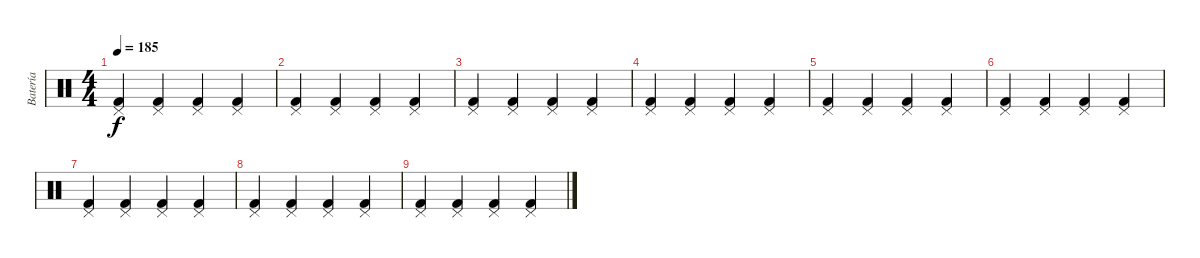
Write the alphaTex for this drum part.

\track ("Batería" "Batería") {instrument percussion}
\staff {score}
\articulation defaults
\ts (4 4)
\tempo 185
\clef neutral
\ks c
("Pedal Hi-Hat (hit)" "Kick (hit) 2").4{dy f} ("Pedal Hi-Hat (hit)" "Kick (hit) 2").4{volume 16} ("Pedal Hi-Hat (hit)" "Kick (hit) 2").4{volume 15} ("Pedal Hi-Hat (hit)" "Kick (hit) 2").4{volume 15} |
("Pedal Hi-Hat (hit)" "Kick (hit) 2").4{volume 14} ("Pedal Hi-Hat (hit)" "Kick (hit) 2").4{volume 14} ("Pedal Hi-Hat (hit)" "Kick (hit) 2").4{volume 13} ("Pedal Hi-Hat (hit)" "Kick (hit) 2").4{volume 13} |
("Pedal Hi-Hat (hit)" "Kick (hit) 2").4{volume 12} ("Pedal Hi-Hat (hit)" "Kick (hit) 2").4{volume 12} ("Pedal Hi-Hat (hit)" "Kick (hit) 2").4{volume 12} ("Pedal Hi-Hat (hit)" "Kick (hit) 2").4{volume 11} |
("Pedal Hi-Hat (hit)" "Kick (hit) 2").4{volume 11} ("Pedal Hi-Hat (hit)" "Kick (hit) 2").4{volume 10} ("Pedal Hi-Hat (hit)" "Kick (hit) 2").4{volume 10} ("Pedal Hi-Hat (hit)" "Kick (hit) 2").4{volume 9} |
("Pedal Hi-Hat (hit)" "Kick (hit) 2").4{volume 9} ("Pedal Hi-Hat (hit)" "Kick (hit) 2").4{volume 8} ("Pedal Hi-Hat (hit)" "Kick (hit) 2").4{volume 8} ("Pedal Hi-Hat (hit)" "Kick (hit) 2").4{volume 8} |
("Pedal Hi-Hat (hit)" "Kick (hit) 2").4{volume 7} ("Pedal Hi-Hat (hit)" "Kick (hit) 2").4{volume 7} ("Pedal Hi-Hat (hit)" "Kick (hit) 2").4{volume 6} ("Pedal Hi-Hat (hit)" "Kick (hit) 2").4{volume 6} |
("Pedal Hi-Hat (hit)" "Kick (hit) 2").4{volume 5} ("Pedal Hi-Hat (hit)" "Kick (hit) 2").4{volume 5} ("Pedal Hi-Hat (hit)" "Kick (hit) 2").4{volume 4} ("Pedal Hi-Hat (hit)" "Kick (hit) 2").4{volume 4} |
("Pedal Hi-Hat (hit)" "Kick (hit) 2").4{volume 4} ("Kick (hit) 2" "Pedal Hi-Hat (hit)").4{volume 3} ("Kick (hit) 2" "Pedal Hi-Hat (hit)").4{volume 3} ("Kick (hit) 2" "Pedal Hi-Hat (hit)").4{volume 2} |
("Kick (hit) 2" "Pedal Hi-Hat (hit)").4{volume 2} ("Kick (hit) 2" "Pedal Hi-Hat (hit)").4{volume 2} ("Kick (hit) 2" "Pedal Hi-Hat (hit)").4{volume 1} ("Kick (hit) 2" "Pedal Hi-Hat (hit)").4{volume 1}
